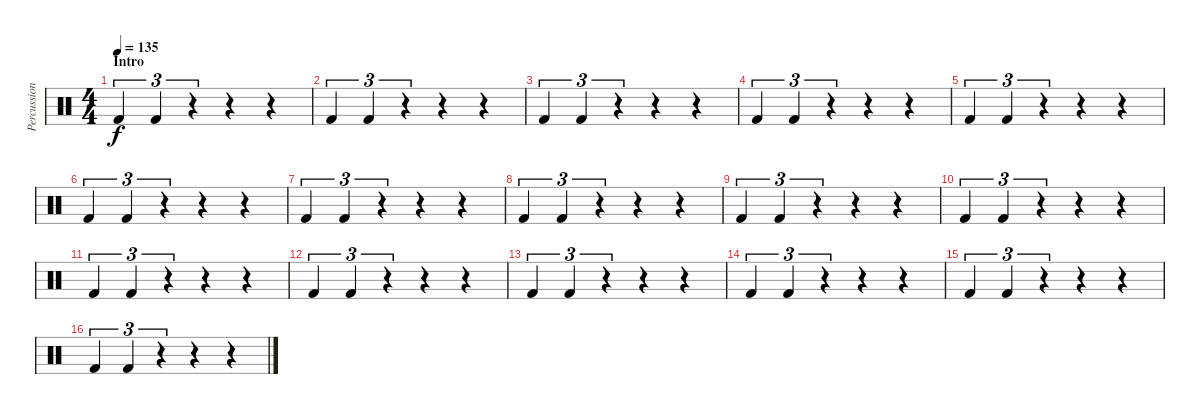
\track ("Percussions" "Percussion") {instrument percussion}
\staff {score}
\articulation defaults
\ts (4 4)
\section ("" "Intro")
\tempo 135
\clef neutral
\ks c "Kick (hit) 2".4{tu (3 2) dy f} "Kick (hit) 2".4{tu (3 2)}
r.4{tu (3 2)} r.4 r.4 |
"Kick (hit) 2".4{tu (3 2)} "Kick (hit) 2".4{tu (3 2)} r.4{tu (3 2)} r.4 r.4 |
"Kick (hit) 2".4{tu (3 2)} "Kick (hit) 2".4{tu (3 2)} r.4{tu (3 2)} r.4 r.4 |
"Kick (hit) 2".4{tu (3 2)} "Kick (hit) 2".4{tu (3 2)} r.4{tu (3 2)} r.4 r.4 |
"Kick (hit) 2".4{tu (3 2)} "Kick (hit) 2".4{tu (3 2)} r.4{tu (3 2)} r.4 r.4 |
"Kick (hit) 2".4{tu (3 2)} "Kick (hit) 2".4{tu (3 2)} r.4{tu (3 2)} r.4 r.4 |
"Kick (hit) 2".4{tu (3 2)} "Kick (hit) 2".4{tu (3 2)} r.4{tu (3 2)} r.4 r.4 |
"Kick (hit) 2".4{tu (3 2)} "Kick (hit) 2".4{tu (3 2)} r.4{tu (3 2)} r.4 r.4 |
"Kick (hit) 2".4{tu (3 2)} "Kick (hit) 2".4{tu (3 2)} r.4{tu (3 2)} r.4 r.4 |
"Kick (hit) 2".4{tu (3 2)} "Kick (hit) 2".4{tu (3 2)} r.4{tu (3 2)} r.4 r.4 |
"Kick (hit) 2".4{tu (3 2)} "Kick (hit) 2".4{tu (3 2)} r.4{tu (3 2)} r.4 r.4 |
"Kick (hit) 2".4{tu (3 2)} "Kick (hit) 2".4{tu (3 2)} r.4{tu (3 2)} r.4 r.4 |
"Kick (hit) 2".4{tu (3 2)} "Kick (hit) 2".4{tu (3 2)} r.4{tu (3 2)} r.4 r.4 |
"Kick (hit) 2".4{tu (3 2)} "Kick (hit) 2".4{tu (3 2)} r.4{tu (3 2)} r.4 r.4 |
"Kick (hit) 2".4{tu (3 2)} "Kick (hit) 2".4{tu (3 2)} r.4{tu (3 2)} r.4 r.4 |
"Kick (hit) 2".4{tu (3 2)} "Kick (hit) 2".4{tu (3 2)} r.4{tu (3 2)} r.4 r.4
